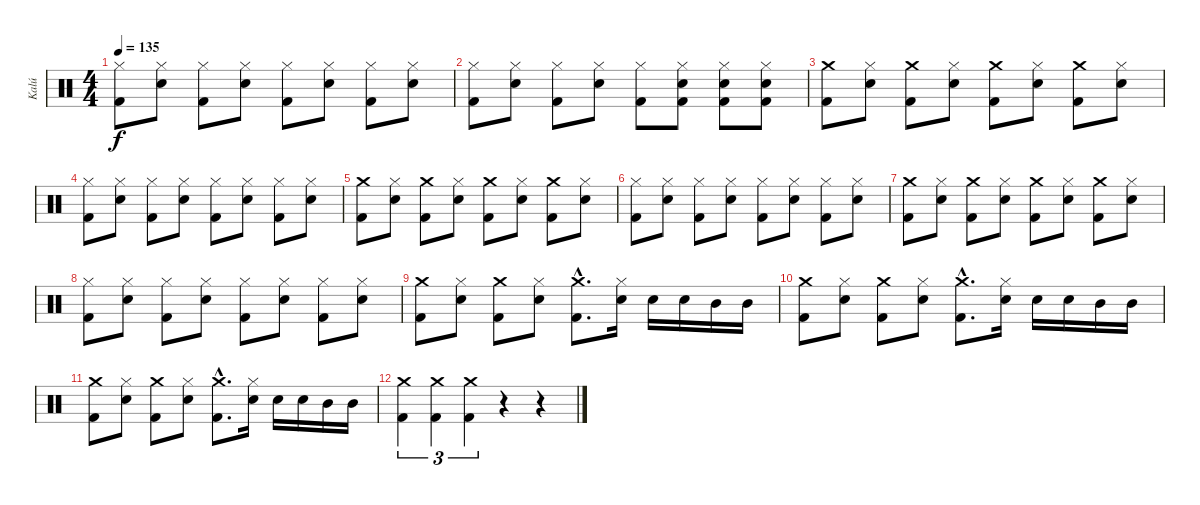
\track ("Kalú" "Kalú") {instrument percussion}
\staff {score}
\articulation defaults
\ts (4 4)
\tempo 135
\clef neutral
\ks c
("Hi-Hat (closed)" "Kick (hit) 2").8{dy f} ("Hi-Hat (closed)" "Electric Snare (hit)").8 ("Hi-Hat (closed)" "Kick (hit) 2").8 ("Hi-Hat (closed)" "Electric Snare (hit)").8 ("Hi-Hat (closed)" "Kick (hit) 2").8 ("Hi-Hat (closed)" "Electric Snare (hit)").8 ("Hi-Hat (closed)" "Kick (hit) 2").8 ("Hi-Hat (closed)" "Electric Snare (hit)").8 |
("Hi-Hat (closed)" "Kick (hit) 2").8 ("Hi-Hat (closed)" "Electric Snare (hit)").8 ("Hi-Hat (closed)" "Kick (hit) 2").8 ("Hi-Hat (closed)" "Electric Snare (hit)").8 ("Hi-Hat (closed)" "Kick (hit) 2").8 ("Hi-Hat (closed)" "Kick (hit) 2" "Electric Snare (hit)").8 ("Hi-Hat (closed)" "Kick (hit) 2" "Electric Snare (hit)").8 ("Hi-Hat (closed)" "Kick (hit) 2" "Electric Snare (hit)").8 |
("Crash medium (hit)" "Kick (hit) 2").8 ("Hi-Hat (closed)" "Electric Snare (hit)").8 ("Crash medium (hit)" "Kick (hit) 2").8 ("Hi-Hat (closed)" "Electric Snare (hit)").8 ("Crash medium (hit)" "Kick (hit) 2").8 ("Hi-Hat (closed)" "Electric Snare (hit)").8 ("Crash medium (hit)" "Kick (hit) 2").8 ("Hi-Hat (closed)" "Electric Snare (hit)").8 |
("Hi-Hat (closed)" "Kick (hit) 2").8 ("Hi-Hat (closed)" "Electric Snare (hit)").8 ("Hi-Hat (closed)" "Kick (hit) 2").8 ("Hi-Hat (closed)" "Electric Snare (hit)").8 ("Hi-Hat (closed)" "Kick (hit) 2").8 ("Hi-Hat (closed)" "Electric Snare (hit)").8 ("Hi-Hat (closed)" "Kick (hit) 2").8 ("Hi-Hat (closed)" "Electric Snare (hit)").8 |
("Crash medium (hit)" "Kick (hit) 2").8 ("Hi-Hat (closed)" "Electric Snare (hit)").8 ("Crash medium (hit)" "Kick (hit) 2").8 ("Hi-Hat (closed)" "Electric Snare (hit)").8 ("Crash medium (hit)" "Kick (hit) 2").8 ("Hi-Hat (closed)" "Electric Snare (hit)").8 ("Crash medium (hit)" "Kick (hit) 2").8 ("Hi-Hat (closed)" "Electric Snare (hit)").8 |
("Hi-Hat (closed)" "Kick (hit) 2").8 ("Hi-Hat (closed)" "Electric Snare (hit)").8 ("Hi-Hat (closed)" "Kick (hit) 2").8 ("Hi-Hat (closed)" "Electric Snare (hit)").8 ("Hi-Hat (closed)" "Kick (hit) 2").8 ("Hi-Hat (closed)" "Electric Snare (hit)").8 ("Hi-Hat (closed)" "Kick (hit) 2").8 ("Hi-Hat (closed)" "Electric Snare (hit)").8 |
("Crash medium (hit)" "Kick (hit) 2").8 ("Hi-Hat (closed)" "Electric Snare (hit)").8 ("Crash medium (hit)" "Kick (hit) 2").8 ("Hi-Hat (closed)" "Electric Snare (hit)").8 ("Crash medium (hit)" "Kick (hit) 2").8 ("Hi-Hat (closed)" "Electric Snare (hit)").8 ("Crash medium (hit)" "Kick (hit) 2").8 ("Hi-Hat (closed)" "Electric Snare (hit)").8 |
("Hi-Hat (closed)" "Kick (hit) 2").8 ("Hi-Hat (closed)" "Electric Snare (hit)").8 ("Hi-Hat (closed)" "Kick (hit) 2").8 ("Hi-Hat (closed)" "Electric Snare (hit)").8 ("Hi-Hat (closed)" "Kick (hit) 2").8 ("Hi-Hat (closed)" "Electric Snare (hit)").8 ("Hi-Hat (closed)" "Kick (hit) 2").8 ("Hi-Hat (closed)" "Electric Snare (hit)").8 |
("Crash medium (hit)" "Kick (hit) 2").8 ("Hi-Hat (closed)" "Electric Snare (hit)").8 ("Crash medium (hit)" "Kick (hit) 2").8 ("Hi-Hat (closed)" "Electric Snare (hit)").8 ("Crash medium (hit)"{hac} "Kick (hit) 2"{hac}).8{d} ("Hi-Hat (closed)" "Electric Snare (hit)").16 "Electric Snare (hit)".16 "Electric Snare (hit)".16 "Mid Tom (hit)".16 "Mid Tom (hit)".16 |
("Crash medium (hit)" "Kick (hit) 2").8 ("Hi-Hat (closed)" "Electric Snare (hit)").8 ("Crash medium (hit)" "Kick (hit) 2").8 ("Hi-Hat (closed)" "Electric Snare (hit)").8 ("Crash medium (hit)"{hac} "Kick (hit) 2"{hac}).8{d} ("Hi-Hat (closed)" "Electric Snare (hit)").16 "Electric Snare (hit)".16 "Electric Snare (hit)".16 "Mid Tom (hit)".16 "Mid Tom (hit)".16 |
("Crash medium (hit)" "Kick (hit) 2").8 ("Hi-Hat (closed)" "Electric Snare (hit)").8 ("Crash medium (hit)" "Kick (hit) 2").8 ("Hi-Hat (closed)" "Electric Snare (hit)").8 ("Crash medium (hit)"{hac} "Kick (hit) 2"{hac}).8{d} ("Hi-Hat (closed)" "Electric Snare (hit)").16 "Electric Snare (hit)".16 "Electric Snare (hit)".16 "Mid Tom (hit)".16 "Mid Tom (hit)".16 |
("Crash medium (hit)" "Kick (hit) 2").4{tu (3 2)} ("Crash medium (hit)" "Kick (hit) 2").4{tu (3 2)} ("Crash medium (hit)" "Kick (hit) 2").4{tu (3 2)} r.4 r.4
